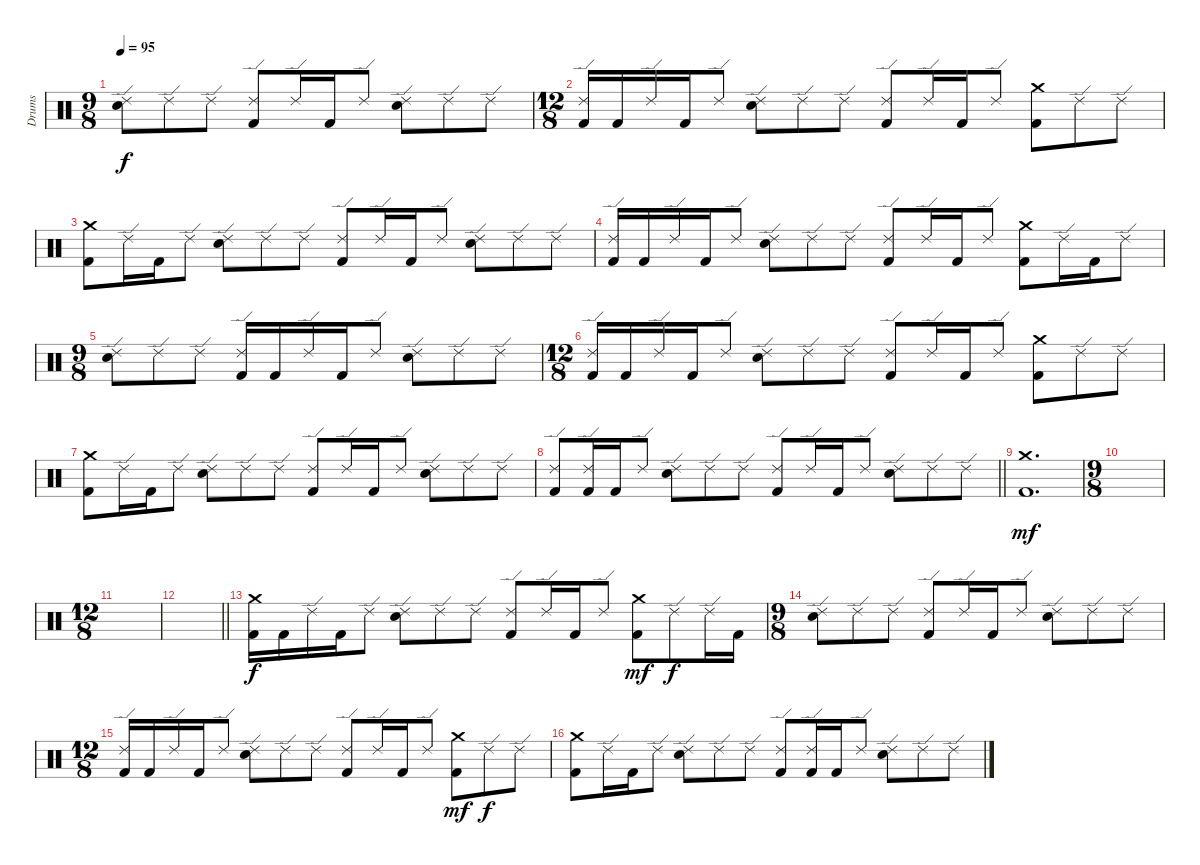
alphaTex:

\track ("Drums" "Drums") {instrument percussion}
\staff {score}
\articulation defaults
\ts (9 8)
\tempo 95
\clef neutral
\ks c
("Ride (edge) 2" "Snare (hit) 2").8{dy f} "Ride (edge) 2".8 "Ride (edge) 2".8 ("Ride (edge) 2" "Kick (hit) 2").8 "Ride (edge) 2".16 "Kick (hit) 2".16 "Ride (edge) 2".8 ("Ride (edge) 2" "Snare (hit) 2").8 "Ride (edge) 2".8 "Ride (edge) 2".8 |
\ts (12 8)
("Ride (edge) 2" "Kick (hit) 2").16 "Kick (hit) 2".16 "Ride (edge) 2".16 "Kick (hit) 2".16 "Ride (edge) 2".8 ("Ride (edge) 2" "Snare (hit) 2").8 "Ride (edge) 2".8 "Ride (edge) 2".8 ("Ride (edge) 2" "Kick (hit) 2").8 "Ride (edge) 2".16 "Kick (hit) 2".16 "Ride (edge) 2".8 ("Crash medium (hit)" "Kick (hit) 2").8 "Ride (edge) 2".8 "Ride (edge) 2".8 |
("Crash medium (hit)" "Kick (hit) 2").8 "Ride (edge) 2".16 "Kick (hit) 2".16 "Ride (edge) 2".8 ("Ride (edge) 2" "Snare (hit) 2").8 "Ride (edge) 2".8 "Ride (edge) 2".8 ("Ride (edge) 2" "Kick (hit) 2").8 "Ride (edge) 2".16 "Kick (hit) 2".16 "Ride (edge) 2".8 ("Ride (edge) 2" "Snare (hit) 2").8 "Ride (edge) 2".8 "Ride (edge) 2".8 |
("Ride (edge) 2" "Kick (hit) 2").16 "Kick (hit) 2".16 "Ride (edge) 2".16 "Kick (hit) 2".16 "Ride (edge) 2".8 ("Ride (edge) 2" "Snare (hit) 2").8 "Ride (edge) 2".8 "Ride (edge) 2".8 ("Ride (edge) 2" "Kick (hit) 2").8 "Ride (edge) 2".16 "Kick (hit) 2".16 "Ride (edge) 2".8 ("Crash medium (hit)" "Kick (hit) 2").8 "Ride (edge) 2".16 "Kick (hit) 2".16 "Ride (edge) 2".8 |
\ts (9 8)
("Ride (edge) 2" "Snare (hit) 2").8 "Ride (edge) 2".8 "Ride (edge) 2".8 ("Ride (edge) 2" "Kick (hit) 2").16 "Kick (hit) 2".16 "Ride (edge) 2".16 "Kick (hit) 2".16 "Ride (edge) 2".8 ("Ride (edge) 2" "Snare (hit) 2").8 "Ride (edge) 2".8 "Ride (edge) 2".8 |
\ts (12 8)
("Ride (edge) 2" "Kick (hit) 2").16 "Kick (hit) 2".16 "Ride (edge) 2".16 "Kick (hit) 2".16 "Ride (edge) 2".8 ("Ride (edge) 2" "Snare (hit) 2").8 "Ride (edge) 2".8 "Ride (edge) 2".8 ("Ride (edge) 2" "Kick (hit) 2").8 "Ride (edge) 2".16 "Kick (hit) 2".16 "Ride (edge) 2".8 ("Crash medium (hit)" "Kick (hit) 2").8 "Ride (edge) 2".8 "Ride (edge) 2".8 |
("Crash medium (hit)" "Kick (hit) 2").8 "Ride (edge) 2".16 "Kick (hit) 2".16 "Ride (edge) 2".8 ("Ride (edge) 2" "Snare (hit) 2").8 "Ride (edge) 2".8 "Ride (edge) 2".8 ("Ride (edge) 2" "Kick (hit) 2").8 "Ride (edge) 2".16 "Kick (hit) 2".16 "Ride (edge) 2".8 ("Ride (edge) 2" "Snare (hit) 2").8 "Ride (edge) 2".8 "Ride (edge) 2".8 |
\barLineRight lightlight
("Ride (edge) 2" "Kick (hit) 2").8 ("Ride (edge) 2" "Kick (hit) 2").16 "Kick (hit) 2".16 "Ride (edge) 2".8 ("Ride (edge) 2" "Snare (hit) 2").8 "Ride (edge) 2".8 "Ride (edge) 2".8 ("Ride (edge) 2" "Kick (hit) 2").8 "Ride (edge) 2".16 "Kick (hit) 2".16 "Ride (edge) 2".8 ("Ride (edge) 2" "Snare (hit) 2").8 "Ride (edge) 2".8 "Ride (edge) 2".8 |
\section ("" "")
("Crash medium (hit)" "Kick (hit) 2").1{d dy mf} |
\ts (9 8)
|
\ts (12 8)
|
\barLineRight lightlight
|
\section ("" "")
("Crash medium (hit)" "Kick (hit) 2").16{dy f} "Kick (hit) 2".16 "Ride (edge) 2".16 "Kick (hit) 2".16 "Ride (edge) 2".8 ("Ride (edge) 2" "Snare (hit) 2").8 "Ride (edge) 2".8 "Ride (edge) 2".8 ("Ride (edge) 2" "Kick (hit) 2").8 "Ride (edge) 2".16 "Kick (hit) 2".16 "Ride (edge) 2".8 ("Crash medium (hit)" "Kick (hit) 2").8{dy mf} "Ride (edge) 2".8{dy f} "Ride (edge) 2".16 "Kick (hit) 2".16 |
\ts (9 8)
("Ride (edge) 2" "Snare (hit) 2").8 "Ride (edge) 2".8 "Ride (edge) 2".8 ("Ride (edge) 2" "Kick (hit) 2").8 "Ride (edge) 2".16 "Kick (hit) 2".16 "Ride (edge) 2".8 ("Ride (edge) 2" "Snare (hit) 2").8 "Ride (edge) 2".8 "Ride (edge) 2".8 |
\ts (12 8)
("Ride (edge) 2" "Kick (hit) 2").16 "Kick (hit) 2".16 "Ride (edge) 2".16 "Kick (hit) 2".16 "Ride (edge) 2".8 ("Ride (edge) 2" "Snare (hit) 2").8 "Ride (edge) 2".8 "Ride (edge) 2".8 ("Ride (edge) 2" "Kick (hit) 2").8 "Ride (edge) 2".16 "Kick (hit) 2".16 "Ride (edge) 2".8 ("Crash medium (hit)" "Kick (hit) 2").8{dy mf} "Ride (edge) 2".8{dy f} "Ride (edge) 2".8 |
("Crash medium (hit)" "Kick (hit) 2").8 "Ride (edge) 2".16 "Kick (hit) 2".16 "Ride (edge) 2".8 ("Ride (edge) 2" "Snare (hit) 2").8 "Ride (edge) 2".8 "Ride (edge) 2".8 ("Ride (edge) 2" "Kick (hit) 2").8 ("Ride (edge) 2" "Kick (hit) 2").16 "Kick (hit) 2".16 "Ride (edge) 2".8 ("Ride (edge) 2" "Snare (hit) 2").8 "Ride (edge) 2".8 "Ride (edge) 2".8
